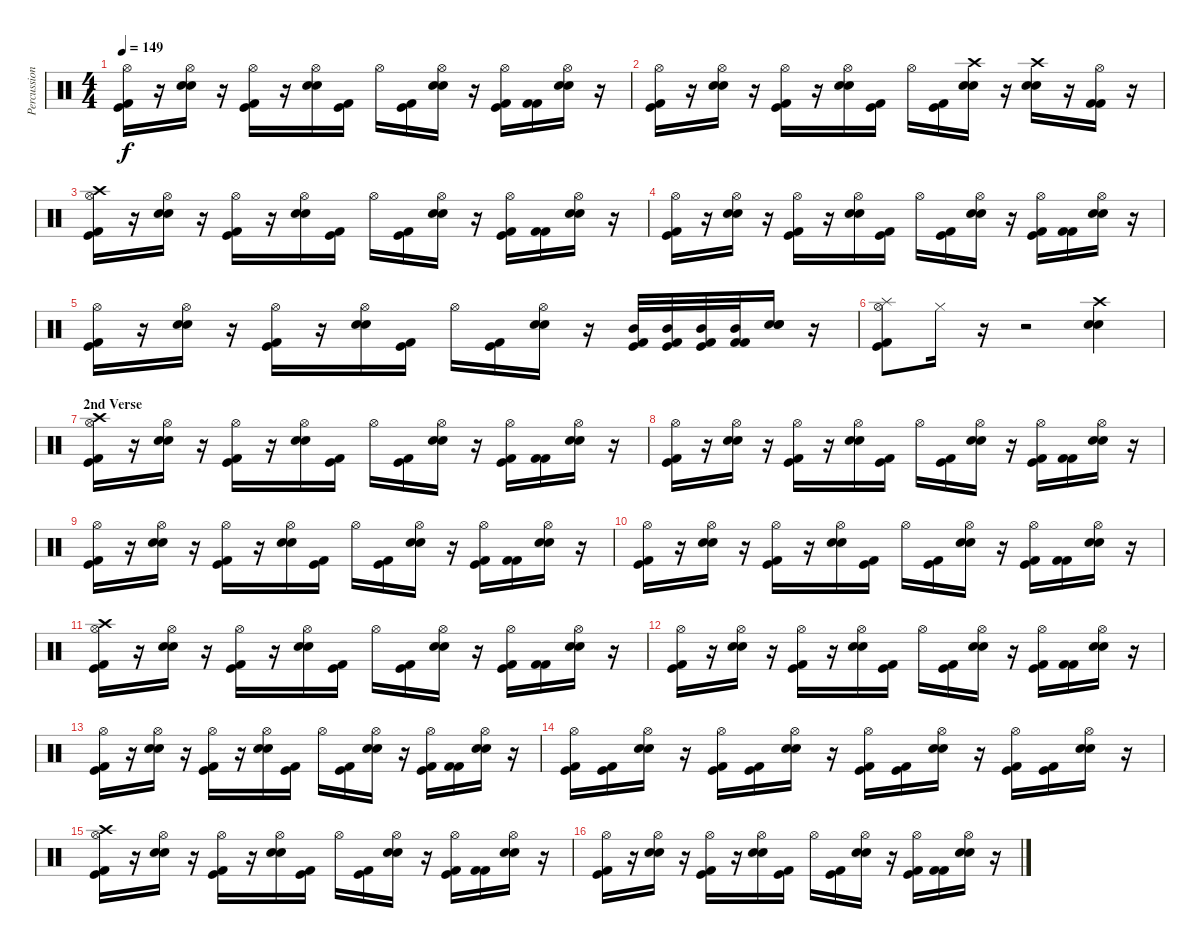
\track ("Percussioni" "Percussion") {instrument percussion}
\staff {score}
\articulation defaults
\ts (4 4)
\tempo 149
\clef neutral
\ks c
("Hi-Hat (open)" "Kick (hit) 2" "Kick (hit)").16{dy f} r.16 ("Hi-Hat (open)" "Snare (hit) 2" "Snare (hit) 2").16 r.16 ("Hi-Hat (open)" "Kick (hit)" "Kick (hit) 2").16 r.16 ("Hi-Hat (open)" "Snare (hit) 2" "Snare (hit) 2").16 ("Kick (hit)" "Kick (hit) 2").16 "Hi-Hat (open)".16 ("Kick (hit) 2" "Kick (hit)").16 ("Hi-Hat (open)" "Snare (hit) 2" "Snare (hit) 2").16 r.16 ("Hi-Hat (open)" "Kick (hit)" "Kick (hit) 2").16 ("Kick (hit) 2" "Kick (hit) 2").16 ("Hi-Hat (open)" "Snare (hit) 2" "Snare (hit) 2").16 r.16 |
("Hi-Hat (open)" "Kick (hit) 2" "Kick (hit)").16 r.16 ("Hi-Hat (open)" "Snare (hit) 2" "Snare (hit) 2").16 r.16 ("Hi-Hat (open)" "Kick (hit)" "Kick (hit) 2").16 r.16 ("Hi-Hat (open)" "Snare (hit) 2" "Snare (hit) 2").16 ("Kick (hit)" "Kick (hit) 2").16 "Hi-Hat (open)".16 ("Kick (hit) 2" "Kick (hit)").16 ("Crash high (hit)" "Snare (hit) 2" "Snare (hit) 2").16 r.16 ("Crash high (hit)" "Snare (hit) 2" "Snare (hit) 2").16 r.16 ("Hi-Hat (open)" "Kick (hit) 2" "Kick (hit) 2").16 r.16 |
("Hi-Hat (open)" "Crash high (hit)" "Kick (hit) 2" "Kick (hit)").16 r.16 ("Hi-Hat (open)" "Snare (hit) 2" "Snare (hit) 2").16 r.16 ("Hi-Hat (open)" "Kick (hit)" "Kick (hit) 2").16 r.16 ("Hi-Hat (open)" "Snare (hit) 2" "Snare (hit) 2").16 ("Kick (hit)" "Kick (hit) 2").16 "Hi-Hat (open)".16 ("Kick (hit) 2" "Kick (hit)").16 ("Hi-Hat (open)" "Snare (hit) 2" "Snare (hit) 2").16 r.16 ("Hi-Hat (open)" "Kick (hit)" "Kick (hit) 2").16 ("Kick (hit) 2" "Kick (hit) 2").16 ("Hi-Hat (open)" "Snare (hit) 2" "Snare (hit) 2").16 r.16 |
("Hi-Hat (open)" "Kick (hit) 2" "Kick (hit)").16 r.16 ("Hi-Hat (open)" "Snare (hit) 2" "Snare (hit) 2").16 r.16 ("Hi-Hat (open)" "Kick (hit)" "Kick (hit) 2").16 r.16 ("Hi-Hat (open)" "Snare (hit) 2" "Snare (hit) 2").16 ("Kick (hit)" "Kick (hit) 2").16 "Hi-Hat (open)".16 ("Kick (hit) 2" "Kick (hit)").16 ("Hi-Hat (open)" "Snare (hit) 2" "Snare (hit) 2").16 r.16 ("Hi-Hat (open)" "Kick (hit)" "Kick (hit) 2").16 ("Kick (hit) 2" "Kick (hit) 2").16 ("Hi-Hat (open)" "Snare (hit) 2" "Snare (hit) 2").16 r.16 |
("Hi-Hat (open)" "Kick (hit) 2" "Kick (hit)").16 r.16 ("Hi-Hat (open)" "Snare (hit) 2" "Snare (hit) 2").16 r.16 ("Hi-Hat (open)" "Kick (hit)" "Kick (hit) 2").16 r.16 ("Hi-Hat (open)" "Snare (hit) 2" "Snare (hit) 2").16 ("Kick (hit)" "Kick (hit) 2").16 "Hi-Hat (open)".16 ("Kick (hit) 2" "Kick (hit)").16 ("Hi-Hat (open)" "Snare (hit) 2" "Snare (hit) 2").16 r.16 ("Mid Tom (hit)" "Kick (hit)" "Kick (hit) 2").32 ("Mid Tom (hit)" "Kick (hit)" "Kick (hit) 2").32 ("Mid Tom (hit)" "Kick (hit)" "Kick (hit) 2").32 ("Mid Tom (hit)" "Kick (hit) 2" "Kick (hit) 2").32 ("Electric Snare (hit)" "Snare (hit) 2" "Snare (hit) 2").16 r.16 |
("Splash (hit)" "Hi-Hat (open)" "Kick (hit) 2" "Kick (hit)").8 "Hi-Hat (closed)".16 r.16 r.2 ("Snare (hit) 2" "Snare (hit) 2" "Crash high (hit)").4 |
\section ("" "2nd Verse")
("Hi-Hat (open)" "Crash high (hit)" "Kick (hit) 2" "Kick (hit)").16 r.16 ("Hi-Hat (open)" "Snare (hit) 2" "Snare (hit) 2").16 r.16 ("Hi-Hat (open)" "Kick (hit)" "Kick (hit) 2").16 r.16 ("Hi-Hat (open)" "Snare (hit) 2" "Snare (hit) 2").16 ("Kick (hit)" "Kick (hit) 2").16 "Hi-Hat (open)".16 ("Kick (hit) 2" "Kick (hit)").16 ("Hi-Hat (open)" "Snare (hit) 2" "Snare (hit) 2").16 r.16 ("Hi-Hat (open)" "Kick (hit)" "Kick (hit) 2").16 ("Kick (hit) 2" "Kick (hit) 2").16 ("Hi-Hat (open)" "Snare (hit) 2" "Snare (hit) 2").16 r.16 |
("Hi-Hat (open)" "Kick (hit) 2" "Kick (hit)").16 r.16 ("Hi-Hat (open)" "Snare (hit) 2" "Snare (hit) 2").16 r.16 ("Hi-Hat (open)" "Kick (hit)" "Kick (hit) 2").16 r.16 ("Hi-Hat (open)" "Snare (hit) 2" "Snare (hit) 2").16 ("Kick (hit)" "Kick (hit) 2").16 "Hi-Hat (open)".16 ("Kick (hit) 2" "Kick (hit)").16 ("Hi-Hat (open)" "Snare (hit) 2" "Snare (hit) 2").16 r.16 ("Hi-Hat (open)" "Kick (hit)" "Kick (hit) 2").16 ("Kick (hit) 2" "Kick (hit) 2").16 ("Hi-Hat (open)" "Snare (hit) 2" "Snare (hit) 2").16 r.16 |
("Hi-Hat (open)" "Kick (hit) 2" "Kick (hit)").16 r.16 ("Hi-Hat (open)" "Snare (hit) 2" "Snare (hit) 2").16 r.16 ("Hi-Hat (open)" "Kick (hit)" "Kick (hit) 2").16 r.16 ("Hi-Hat (open)" "Snare (hit) 2" "Snare (hit) 2").16 ("Kick (hit)" "Kick (hit) 2").16 "Hi-Hat (open)".16 ("Kick (hit) 2" "Kick (hit)").16 ("Hi-Hat (open)" "Snare (hit) 2" "Snare (hit) 2").16 r.16 ("Hi-Hat (open)" "Kick (hit)" "Kick (hit) 2").16 ("Kick (hit) 2" "Kick (hit) 2").16 ("Hi-Hat (open)" "Snare (hit) 2" "Snare (hit) 2").16 r.16 |
("Hi-Hat (open)" "Kick (hit) 2" "Kick (hit)").16 r.16 ("Hi-Hat (open)" "Snare (hit) 2" "Snare (hit) 2").16 r.16 ("Hi-Hat (open)" "Kick (hit)" "Kick (hit) 2").16 r.16 ("Hi-Hat (open)" "Snare (hit) 2" "Snare (hit) 2").16 ("Kick (hit)" "Kick (hit) 2").16 "Hi-Hat (open)".16 ("Kick (hit) 2" "Kick (hit)").16 ("Hi-Hat (open)" "Snare (hit) 2" "Snare (hit) 2").16 r.16 ("Hi-Hat (open)" "Kick (hit)" "Kick (hit) 2").16 ("Kick (hit) 2" "Kick (hit) 2").16 ("Hi-Hat (open)" "Snare (hit) 2" "Snare (hit) 2").16 r.16 |
("Hi-Hat (open)" "Crash high (hit)" "Kick (hit) 2" "Kick (hit)").16 r.16 ("Hi-Hat (open)" "Snare (hit) 2" "Snare (hit) 2").16 r.16 ("Hi-Hat (open)" "Kick (hit)" "Kick (hit) 2").16 r.16 ("Hi-Hat (open)" "Snare (hit) 2" "Snare (hit) 2").16 ("Kick (hit)" "Kick (hit) 2").16 "Hi-Hat (open)".16 ("Kick (hit) 2" "Kick (hit)").16 ("Hi-Hat (open)" "Snare (hit) 2" "Snare (hit) 2").16 r.16 ("Hi-Hat (open)" "Kick (hit)" "Kick (hit) 2").16 ("Kick (hit) 2" "Kick (hit) 2").16 ("Hi-Hat (open)" "Snare (hit) 2" "Snare (hit) 2").16 r.16 |
("Hi-Hat (open)" "Kick (hit) 2" "Kick (hit)").16 r.16 ("Hi-Hat (open)" "Snare (hit) 2" "Snare (hit) 2").16 r.16 ("Hi-Hat (open)" "Kick (hit)" "Kick (hit) 2").16 r.16 ("Hi-Hat (open)" "Snare (hit) 2" "Snare (hit) 2").16 ("Kick (hit)" "Kick (hit) 2").16 "Hi-Hat (open)".16 ("Kick (hit) 2" "Kick (hit)").16 ("Hi-Hat (open)" "Snare (hit) 2" "Snare (hit) 2").16 r.16 ("Hi-Hat (open)" "Kick (hit)" "Kick (hit) 2").16 ("Kick (hit) 2" "Kick (hit) 2").16 ("Hi-Hat (open)" "Snare (hit) 2" "Snare (hit) 2").16 r.16 |
("Hi-Hat (open)" "Kick (hit) 2" "Kick (hit)").16 r.16 ("Hi-Hat (open)" "Snare (hit) 2" "Snare (hit) 2").16 r.16 ("Hi-Hat (open)" "Kick (hit)" "Kick (hit) 2").16 r.16 ("Hi-Hat (open)" "Snare (hit) 2" "Snare (hit) 2").16 ("Kick (hit)" "Kick (hit) 2").16 "Hi-Hat (open)".16 ("Kick (hit) 2" "Kick (hit)").16 ("Hi-Hat (open)" "Snare (hit) 2" "Snare (hit) 2").16 r.16 ("Hi-Hat (open)" "Kick (hit)" "Kick (hit) 2").16 ("Kick (hit) 2" "Kick (hit) 2").16 ("Hi-Hat (open)" "Snare (hit) 2" "Snare (hit) 2").16 r.16 |
("Kick (hit) 2" "Kick (hit)" "Hi-Hat (open)").16 ("Kick (hit) 2" "Kick (hit)").16 ("Snare (hit) 2" "Snare (hit) 2" "Hi-Hat (open)").16 r.16 ("Kick (hit) 2" "Kick (hit)" "Hi-Hat (open)").16 ("Kick (hit) 2" "Kick (hit)").16 ("Snare (hit) 2" "Snare (hit) 2" "Hi-Hat (open)").16 r.16 ("Kick (hit) 2" "Kick (hit)" "Hi-Hat (open)").16 ("Kick (hit) 2" "Kick (hit)").16 ("Snare (hit) 2" "Snare (hit) 2" "Hi-Hat (open)").16 r.16 ("Kick (hit) 2" "Kick (hit)" "Hi-Hat (open)").16 ("Kick (hit) 2" "Kick (hit)").16 ("Snare (hit) 2" "Snare (hit) 2" "Hi-Hat (open)").16 r.16 |
("Hi-Hat (open)" "Crash high (hit)" "Kick (hit) 2" "Kick (hit)").16 r.16 ("Hi-Hat (open)" "Snare (hit) 2" "Snare (hit) 2").16 r.16 ("Hi-Hat (open)" "Kick (hit)" "Kick (hit) 2").16 r.16 ("Hi-Hat (open)" "Snare (hit) 2" "Snare (hit) 2").16 ("Kick (hit)" "Kick (hit) 2").16 "Hi-Hat (open)".16 ("Kick (hit) 2" "Kick (hit)").16 ("Hi-Hat (open)" "Snare (hit) 2" "Snare (hit) 2").16 r.16 ("Hi-Hat (open)" "Kick (hit)" "Kick (hit) 2").16 ("Kick (hit) 2" "Kick (hit) 2").16 ("Hi-Hat (open)" "Snare (hit) 2" "Snare (hit) 2").16 r.16 |
("Hi-Hat (open)" "Kick (hit) 2" "Kick (hit)").16 r.16 ("Hi-Hat (open)" "Snare (hit) 2" "Snare (hit) 2").16 r.16 ("Hi-Hat (open)" "Kick (hit)" "Kick (hit) 2").16 r.16 ("Hi-Hat (open)" "Snare (hit) 2" "Snare (hit) 2").16 ("Kick (hit)" "Kick (hit) 2").16 "Hi-Hat (open)".16 ("Kick (hit) 2" "Kick (hit)").16 ("Hi-Hat (open)" "Snare (hit) 2" "Snare (hit) 2").16 r.16 ("Hi-Hat (open)" "Kick (hit)" "Kick (hit) 2").16 ("Kick (hit) 2" "Kick (hit) 2").16 ("Hi-Hat (open)" "Snare (hit) 2" "Snare (hit) 2").16 r.16
